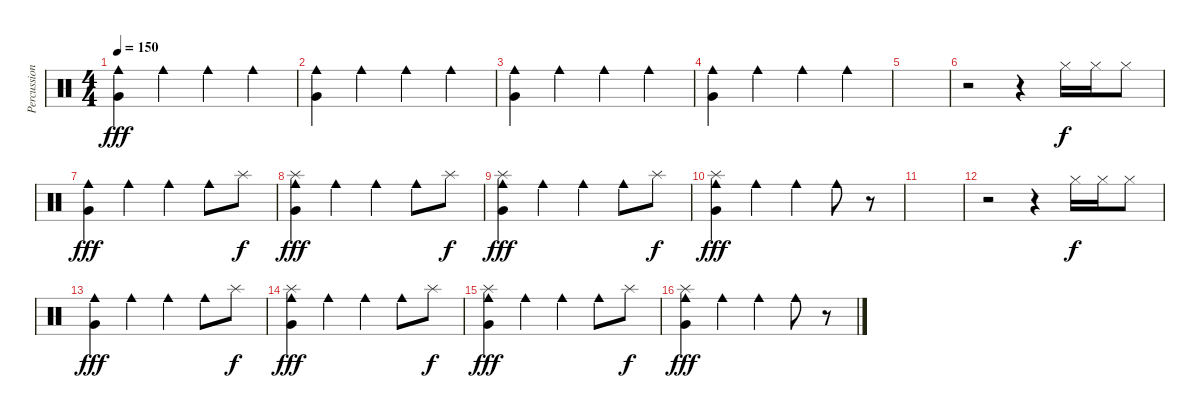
\track ("Percussion" "Percussion") {instrument percussion}
\staff {score}
\articulation defaults
\ts (4 4)
\tempo 150
\clef neutral
\ks c
("Very Low Tom (hit)" "Cowbell medium (hit)").4{dy fff} "Cowbell medium (hit)".4 "Cowbell medium (hit)".4 "Cowbell medium (hit)".4 |
("Very Low Tom (hit)" "Cowbell medium (hit)").4 "Cowbell medium (hit)".4 "Cowbell medium (hit)".4 "Cowbell medium (hit)".4 |
("Very Low Tom (hit)" "Cowbell medium (hit)").4 "Cowbell medium (hit)".4 "Cowbell medium (hit)".4 "Cowbell medium (hit)".4 |
("Very Low Tom (hit)" "Cowbell medium (hit)").4 "Cowbell medium (hit)".4 "Cowbell medium (hit)".4 "Cowbell medium (hit)".4 |
|
r.2 r.4 "Hi-Hat (closed)".16{dy f} "Hi-Hat (closed)".16 "Hi-Hat (closed)".8 |
("Very Low Tom (hit)" "Cowbell medium (hit)").4{dy fff} "Cowbell medium (hit)".4 "Cowbell medium (hit)".4 "Cowbell medium (hit)".8 "Splash (hit)".8{dy f} |
("Splash (hit)" "Very Low Tom (hit)" "Cowbell medium (hit)").4{dy fff} "Cowbell medium (hit)".4 "Cowbell medium (hit)".4 "Cowbell medium (hit)".8 "Splash (hit)".8{dy f} |
("Splash (hit)" "Very Low Tom (hit)" "Cowbell medium (hit)").4{dy fff} "Cowbell medium (hit)".4 "Cowbell medium (hit)".4 "Cowbell medium (hit)".8 "Splash (hit)".8{dy f} |
("Splash (hit)" "Very Low Tom (hit)" "Cowbell medium (hit)").4{dy fff} "Cowbell medium (hit)".4 "Cowbell medium (hit)".4 "Cowbell medium (hit)".8 r.8 |
|
r.2 r.4 "Hi-Hat (closed)".16{dy f} "Hi-Hat (closed)".16 "Hi-Hat (closed)".8 |
("Very Low Tom (hit)" "Cowbell medium (hit)").4{dy fff} "Cowbell medium (hit)".4 "Cowbell medium (hit)".4 "Cowbell medium (hit)".8 "Splash (hit)".8{dy f} |
("Splash (hit)" "Very Low Tom (hit)" "Cowbell medium (hit)").4{dy fff} "Cowbell medium (hit)".4 "Cowbell medium (hit)".4 "Cowbell medium (hit)".8 "Splash (hit)".8{dy f} |
("Splash (hit)" "Very Low Tom (hit)" "Cowbell medium (hit)").4{dy fff} "Cowbell medium (hit)".4 "Cowbell medium (hit)".4 "Cowbell medium (hit)".8 "Splash (hit)".8{dy f} |
("Splash (hit)" "Very Low Tom (hit)" "Cowbell medium (hit)").4{dy fff} "Cowbell medium (hit)".4 "Cowbell medium (hit)".4 "Cowbell medium (hit)".8 r.8
